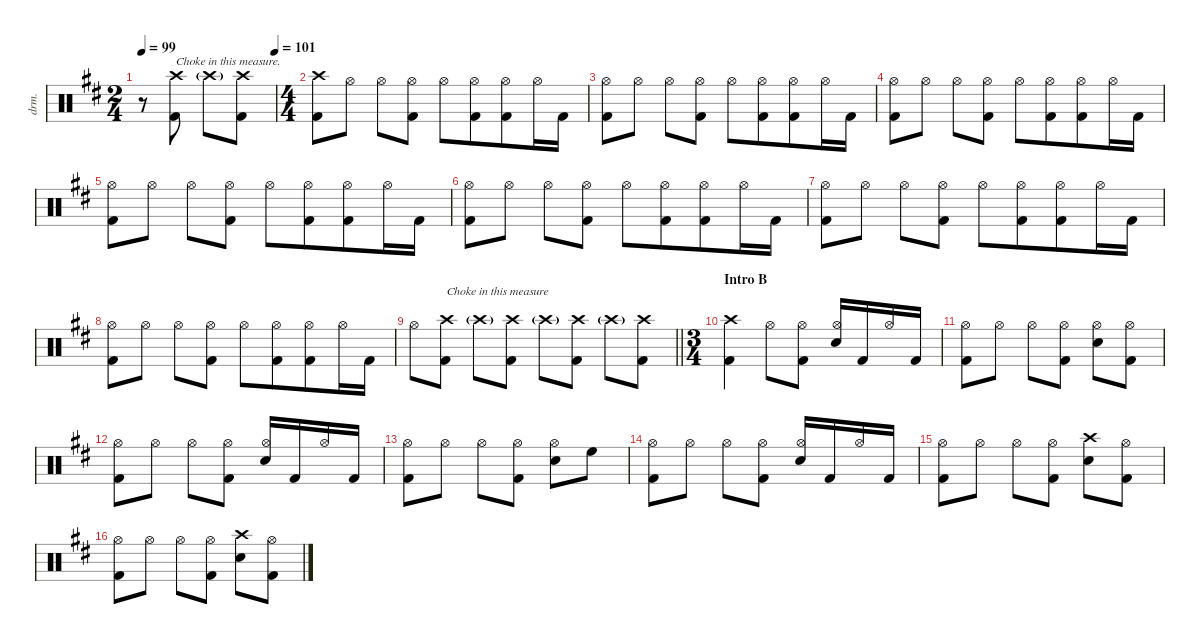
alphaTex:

\defaultSystemsLayout 4
\hideDynamics
\bracketExtendMode nobrackets
\otherSystemsTrackNameOrientation horizontal
\track ("Lars Ulrich" "drm.") {defaultSystemsLayout 4 instrument percussion}
\staff {score}
\articulation defaults
\ts (2 4)
\beaming (8 2 2)
\tempo 99
\tempo (101 1)
\clef neutral
\ks bminor
r.8{dy f beam Down} ("Crash high (hit)"{acc forcenatural} "Kick (hit) 2"{acc forcenatural}).8{txt "Choke in this measure." beam Down} "Crash high (hit)"{g acc forcenatural}.8{dy pp beam Down} ("Crash high (hit)"{acc forcenatural} "Kick (hit) 2"{acc forcenatural}).8{dy f beam Down} |
\ts (4 4)
\beaming (8 2 2 4)
("Crash high (hit)"{acc forcenatural} "Kick (hit) 2"{acc forcenatural}).8{beam Down} "Hi-Hat (open)"{acc forcenatural}.8{dy mp beam Down} "Hi-Hat (open)"{acc forcenatural}.8{beam Down} ("Hi-Hat (open)"{acc forcenatural} "Kick (hit) 2"{acc forcenatural}).8{beam Down} "Hi-Hat (open)"{acc forcenatural}.8{beam Down} ("Hi-Hat (open)"{acc forcenatural} "Kick (hit) 2"{acc forcenatural}).8{beam Down} ("Hi-Hat (open)"{acc forcenatural} "Kick (hit) 2"{acc forcenatural}).8{beam Down} "Hi-Hat (open)"{acc forcenatural}.16{beam Down} "Kick (hit) 2"{acc forcenatural}.16{dy fff beam Down} |
("Hi-Hat (open)"{acc forcenatural} "Kick (hit) 2"{acc forcenatural}).8{dy mp beam Down} "Hi-Hat (open)"{acc forcenatural}.8{beam Down} "Hi-Hat (open)"{acc forcenatural}.8{beam Down} ("Hi-Hat (open)"{acc forcenatural} "Kick (hit) 2"{acc forcenatural}).8{beam Down} "Hi-Hat (open)"{acc forcenatural}.8{beam Down} ("Hi-Hat (open)"{acc forcenatural} "Kick (hit) 2"{acc forcenatural}).8{beam Down} ("Hi-Hat (open)"{acc forcenatural} "Kick (hit) 2"{acc forcenatural}).8{beam Down} "Hi-Hat (open)"{acc forcenatural}.16{beam Down} "Kick (hit) 2"{acc forcenatural}.16{dy fff beam Down} |
("Hi-Hat (open)"{acc forcenatural} "Kick (hit) 2"{acc forcenatural}).8{dy mp beam Down} "Hi-Hat (open)"{acc forcenatural}.8{beam Down} "Hi-Hat (open)"{acc forcenatural}.8{beam Down} ("Hi-Hat (open)"{acc forcenatural} "Kick (hit) 2"{acc forcenatural}).8{beam Down} "Hi-Hat (open)"{acc forcenatural}.8{beam Down} ("Hi-Hat (open)"{acc forcenatural} "Kick (hit) 2"{acc forcenatural}).8{beam Down} ("Hi-Hat (open)"{acc forcenatural} "Kick (hit) 2"{acc forcenatural}).8{beam Down} "Hi-Hat (open)"{acc forcenatural}.16{beam Down} "Kick (hit) 2"{acc forcenatural}.16{dy fff beam Down} |
("Hi-Hat (open)"{acc forcenatural} "Kick (hit) 2"{acc forcenatural}).8{dy mp beam Down} "Hi-Hat (open)"{acc forcenatural}.8{beam Down} "Hi-Hat (open)"{acc forcenatural}.8{beam Down} ("Hi-Hat (open)"{acc forcenatural} "Kick (hit) 2"{acc forcenatural}).8{beam Down} "Hi-Hat (open)"{acc forcenatural}.8{beam Down} ("Hi-Hat (open)"{acc forcenatural} "Kick (hit) 2"{acc forcenatural}).8{beam Down} ("Hi-Hat (open)"{acc forcenatural} "Kick (hit) 2"{acc forcenatural}).8{beam Down} "Hi-Hat (open)"{acc forcenatural}.16{beam Down} "Kick (hit) 2"{acc forcenatural}.16{dy fff beam Down} |
("Hi-Hat (open)"{acc forcenatural} "Kick (hit) 2"{acc forcenatural}).8{dy mp beam Down} "Hi-Hat (open)"{acc forcenatural}.8{beam Down} "Hi-Hat (open)"{acc forcenatural}.8{beam Down} ("Hi-Hat (open)"{acc forcenatural} "Kick (hit) 2"{acc forcenatural}).8{beam Down} "Hi-Hat (open)"{acc forcenatural}.8{beam Down} ("Hi-Hat (open)"{acc forcenatural} "Kick (hit) 2"{acc forcenatural}).8{beam Down} ("Hi-Hat (open)"{acc forcenatural} "Kick (hit) 2"{acc forcenatural}).8{beam Down} "Hi-Hat (open)"{acc forcenatural}.16{beam Down} "Kick (hit) 2"{acc forcenatural}.16{dy fff beam Down} |
("Hi-Hat (open)"{acc forcenatural} "Kick (hit) 2"{acc forcenatural}).8{dy mp beam Down} "Hi-Hat (open)"{acc forcenatural}.8{beam Down} "Hi-Hat (open)"{acc forcenatural}.8{beam Down} ("Hi-Hat (open)"{acc forcenatural} "Kick (hit) 2"{acc forcenatural}).8{beam Down} "Hi-Hat (open)"{acc forcenatural}.8{beam Down} ("Hi-Hat (open)"{acc forcenatural} "Kick (hit) 2"{acc forcenatural}).8{beam Down} ("Hi-Hat (open)"{acc forcenatural} "Kick (hit) 2"{acc forcenatural}).8{beam Down} "Hi-Hat (open)"{acc forcenatural}.16{beam Down} "Kick (hit) 2"{acc forcenatural}.16{dy fff beam Down} |
("Hi-Hat (open)"{acc forcenatural} "Kick (hit) 2"{acc forcenatural}).8{dy mp beam Down} "Hi-Hat (open)"{acc forcenatural}.8{beam Down} "Hi-Hat (open)"{acc forcenatural}.8{beam Down} ("Hi-Hat (open)"{acc forcenatural} "Kick (hit) 2"{acc forcenatural}).8{beam Down} "Hi-Hat (open)"{acc forcenatural}.8{beam Down} ("Hi-Hat (open)"{acc forcenatural} "Kick (hit) 2"{acc forcenatural}).8{beam Down} ("Hi-Hat (open)"{acc forcenatural} "Kick (hit) 2"{acc forcenatural}).8{beam Down} "Hi-Hat (open)"{acc forcenatural}.16{beam Down} "Kick (hit) 2"{acc forcenatural}.16{dy fff beam Down} |
\beaming (8 2 2 2 2)
\barLineRight lightlight "Hi-Hat (open)"{acc forcenatural}.8{dy mp beam Down}
("Crash high (hit)"{acc forcenatural} "Kick (hit) 2"{acc forcenatural}).8{txt "Choke in this measure" dy f beam Down} "Crash high (hit)"{g acc forcenatural}.8{dy pp beam Down} ("Crash high (hit)"{acc forcenatural} "Kick (hit) 2"{acc forcenatural}).8{dy f beam Down} "Crash high (hit)"{g acc forcenatural}.8{dy pp beam Down} ("Crash high (hit)"{acc forcenatural} "Kick (hit) 2"{acc forcenatural}).8{dy f beam Down} "Crash high (hit)"{g acc forcenatural}.8{dy pp beam Down} ("Crash high (hit)"{acc forcenatural} "Kick (hit) 2"{acc forcenatural}).8{dy f beam Down} |
\ts (3 4)
\beaming (8 2 2 2)
\section ("" "Intro B")
("Crash high (hit)"{acc forcenatural} "Kick (hit) 2"{acc forcenatural}).4{beam Down} "Hi-Hat (open)"{acc forcenatural}.8{dy mf beam Down} ("Hi-Hat (open)"{acc forcenatural} "Kick (hit) 2"{acc forcenatural}).8{beam Down} ("Hi-Hat (open)"{acc forcenatural} "Snare (hit) 2"{acc forcenatural}).16{beam Up} "Kick (hit) 2"{acc forcenatural}.16{dy fff beam Up} "Hi-Hat (open)"{acc forcenatural}.16{dy mf beam Up} "Kick (hit) 2"{acc forcenatural}.16{dy fff beam Up} |
("Hi-Hat (open)"{acc forcenatural} "Kick (hit) 2"{acc forcenatural}).8{dy mf beam Down} "Hi-Hat (open)"{acc forcenatural}.8{beam Down} "Hi-Hat (open)"{acc forcenatural}.8{beam Down} ("Hi-Hat (open)"{acc forcenatural} "Kick (hit) 2"{acc forcenatural}).8{beam Down} ("Hi-Hat (open)"{acc forcenatural} "Snare (hit) 2"{acc forcenatural}).8{beam Down} ("Hi-Hat (open)"{acc forcenatural} "Kick (hit) 2"{acc forcenatural}).8{beam Down} |
("Hi-Hat (open)"{acc forcenatural} "Kick (hit) 2"{acc forcenatural}).8{beam Down} "Hi-Hat (open)"{acc forcenatural}.8{beam Down} "Hi-Hat (open)"{acc forcenatural}.8{beam Down} ("Hi-Hat (open)"{acc forcenatural} "Kick (hit) 2"{acc forcenatural}).8{beam Down} ("Hi-Hat (open)"{acc forcenatural} "Snare (hit) 2"{acc forcenatural}).16{beam Up} "Kick (hit) 2"{acc forcenatural}.16{dy fff beam Up} "Hi-Hat (open)"{acc forcenatural}.16{dy mf beam Up} "Kick (hit) 2"{acc forcenatural}.16{dy fff beam Up} |
("Hi-Hat (open)"{acc forcenatural} "Kick (hit) 2"{acc forcenatural}).8{dy mf beam Down} "Hi-Hat (open)"{acc forcenatural}.8{beam Down} "Hi-Hat (open)"{acc forcenatural}.8{beam Down} ("Hi-Hat (open)"{acc forcenatural} "Kick (hit) 2"{acc forcenatural}).8{beam Down} ("Hi-Hat (open)"{acc forcenatural} "Snare (hit) 2"{acc forcenatural}).8{beam Down} "High Floor Tom (hit)"{acc forcenatural}.8{dy fff beam Down} |
("Hi-Hat (open)"{acc forcenatural} "Kick (hit) 2"{acc forcenatural}).8{dy mf beam Down} "Hi-Hat (open)"{acc forcenatural}.8{beam Down} "Hi-Hat (open)"{acc forcenatural}.8{beam Down} ("Hi-Hat (open)"{acc forcenatural} "Kick (hit) 2"{acc forcenatural}).8{beam Down} ("Hi-Hat (open)"{acc forcenatural} "Snare (hit) 2"{acc forcenatural}).16{beam Up} "Kick (hit) 2"{acc forcenatural}.16{dy fff beam Up} "Hi-Hat (open)"{acc forcenatural}.16{dy mf beam Up} "Kick (hit) 2"{acc forcenatural}.16{dy fff beam Up} |
("Hi-Hat (open)"{acc forcenatural} "Kick (hit) 2"{acc forcenatural}).8{dy mf beam Down} "Hi-Hat (open)"{acc forcenatural}.8{beam Down} "Hi-Hat (open)"{acc forcenatural}.8{beam Down} ("Hi-Hat (open)"{acc forcenatural} "Kick (hit) 2"{acc forcenatural}).8{beam Down} ("Crash high (hit)"{acc forcenatural} "Snare (hit) 2"{acc forcenatural}).8{dy f beam Down} ("Hi-Hat (open)"{acc forcenatural} "Kick (hit) 2"{acc forcenatural}).8{dy mf beam Down} |
("Hi-Hat (open)"{acc forcenatural} "Kick (hit) 2"{acc forcenatural}).8{beam Down} "Hi-Hat (open)"{acc forcenatural}.8{beam Down} "Hi-Hat (open)"{acc forcenatural}.8{beam Down} ("Hi-Hat (open)"{acc forcenatural} "Kick (hit) 2"{acc forcenatural}).8{beam Down} ("Crash high (hit)"{acc forcenatural} "Snare (hit) 2"{acc forcenatural}).8{dy f beam Down} ("Hi-Hat (open)"{acc forcenatural} "Kick (hit) 2"{acc forcenatural}).8{dy mf beam Down}
